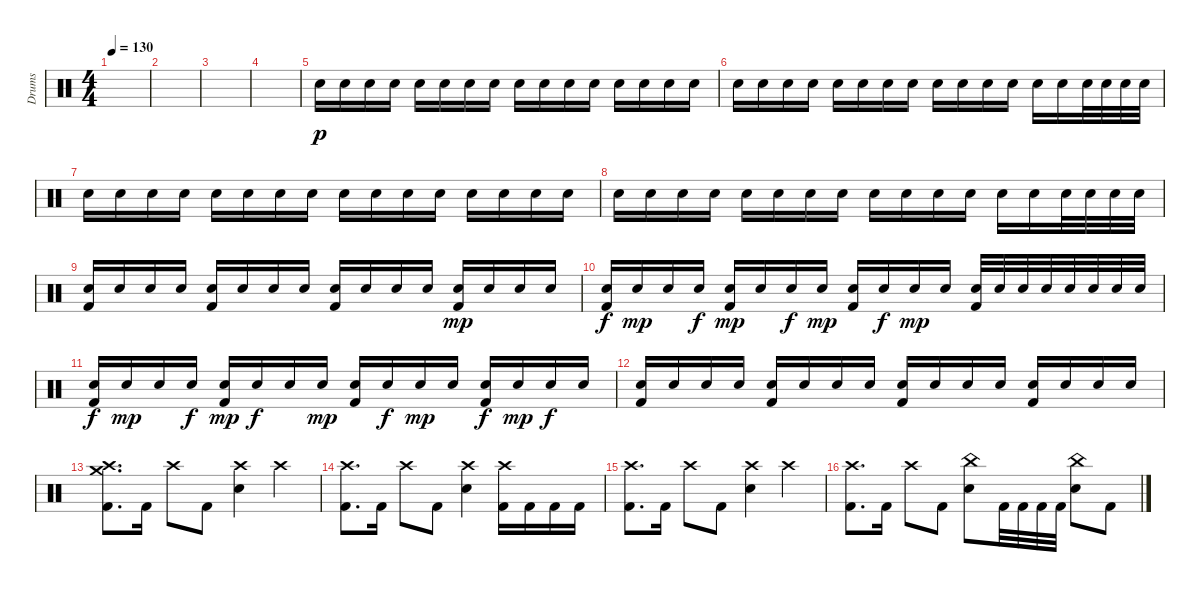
\track ("Drums" "Drums") {instrument percussion}
\staff {score}
\articulation defaults
\ts (4 4)
\tempo 130
\clef neutral
\ks c
|
|
|
|
"Electric Snare (hit)".16{dy p} "Electric Snare (hit)".16 "Electric Snare (hit)".16 "Electric Snare (hit)".16 "Electric Snare (hit)".16 "Electric Snare (hit)".16 "Electric Snare (hit)".16 "Electric Snare (hit)".16 "Electric Snare (hit)".16 "Electric Snare (hit)".16 "Electric Snare (hit)".16 "Electric Snare (hit)".16 "Electric Snare (hit)".16 "Electric Snare (hit)".16 "Electric Snare (hit)".16 "Electric Snare (hit)".16 |
"Electric Snare (hit)".16 "Electric Snare (hit)".16 "Electric Snare (hit)".16 "Electric Snare (hit)".16 "Electric Snare (hit)".16 "Electric Snare (hit)".16 "Electric Snare (hit)".16 "Electric Snare (hit)".16 "Electric Snare (hit)".16 "Electric Snare (hit)".16 "Electric Snare (hit)".16 "Electric Snare (hit)".16 "Electric Snare (hit)".16 "Electric Snare (hit)".16 "Electric Snare (hit)".32 "Electric Snare (hit)".32 "Electric Snare (hit)".32 "Electric Snare (hit)".32 |
"Electric Snare (hit)".16 "Electric Snare (hit)".16 "Electric Snare (hit)".16 "Electric Snare (hit)".16 "Electric Snare (hit)".16 "Electric Snare (hit)".16 "Electric Snare (hit)".16 "Electric Snare (hit)".16 "Electric Snare (hit)".16 "Electric Snare (hit)".16 "Electric Snare (hit)".16 "Electric Snare (hit)".16 "Electric Snare (hit)".16 "Electric Snare (hit)".16 "Electric Snare (hit)".16 "Electric Snare (hit)".16 |
"Electric Snare (hit)".16 "Electric Snare (hit)".16 "Electric Snare (hit)".16 "Electric Snare (hit)".16 "Electric Snare (hit)".16 "Electric Snare (hit)".16 "Electric Snare (hit)".16 "Electric Snare (hit)".16 "Electric Snare (hit)".16 "Electric Snare (hit)".16 "Electric Snare (hit)".16 "Electric Snare (hit)".16 "Electric Snare (hit)".16 "Electric Snare (hit)".16 "Electric Snare (hit)".32 "Electric Snare (hit)".32 "Electric Snare (hit)".32 "Electric Snare (hit)".32 |
("Electric Snare (hit)" "Kick (hit) 2").16 "Electric Snare (hit)".16 "Electric Snare (hit)".16 "Electric Snare (hit)".16 ("Electric Snare (hit)" "Kick (hit) 2").16 "Electric Snare (hit)".16 "Electric Snare (hit)".16 "Electric Snare (hit)".16 ("Electric Snare (hit)" "Kick (hit) 2").16 "Electric Snare (hit)".16 "Electric Snare (hit)".16 "Electric Snare (hit)".16 ("Electric Snare (hit)" "Kick (hit) 2").16{dy mp} "Electric Snare (hit)".16 "Electric Snare (hit)".16 "Electric Snare (hit)".16 |
("Electric Snare (hit)" "Kick (hit) 2").16{dy f} "Electric Snare (hit)".16{dy mp} "Electric Snare (hit)".16 "Electric Snare (hit)".16{dy f} ("Electric Snare (hit)" "Kick (hit) 2").16{dy mp} "Electric Snare (hit)".16 "Electric Snare (hit)".16{dy f} "Electric Snare (hit)".16{dy mp} ("Electric Snare (hit)" "Kick (hit) 2").16 "Electric Snare (hit)".16{dy f} "Electric Snare (hit)".16{dy mp} "Electric Snare (hit)".16 ("Electric Snare (hit)" "Kick (hit) 2").32 "Electric Snare (hit)".32 "Electric Snare (hit)".32 "Electric Snare (hit)".32 "Electric Snare (hit)".32 "Electric Snare (hit)".32 "Electric Snare (hit)".32 "Electric Snare (hit)".32 |
("Electric Snare (hit)" "Kick (hit) 2").16{dy f} "Electric Snare (hit)".16{dy mp} "Electric Snare (hit)".16 "Electric Snare (hit)".16{dy f} ("Electric Snare (hit)" "Kick (hit) 2").16{dy mp} "Electric Snare (hit)".16{dy f} "Electric Snare (hit)".16 "Electric Snare (hit)".16{dy mp} ("Electric Snare (hit)" "Kick (hit) 2").16 "Electric Snare (hit)".16{dy f} "Electric Snare (hit)".16{dy mp} "Electric Snare (hit)".16 ("Electric Snare (hit)" "Kick (hit) 2").16{dy f} "Electric Snare (hit)".16{dy mp} "Electric Snare (hit)".16{dy f} "Electric Snare (hit)".16 |
("Electric Snare (hit)" "Kick (hit) 2").16 "Electric Snare (hit)".16 "Electric Snare (hit)".16 "Electric Snare (hit)".16 ("Electric Snare (hit)" "Kick (hit) 2").16 "Electric Snare (hit)".16 "Electric Snare (hit)".16 "Electric Snare (hit)".16 ("Electric Snare (hit)" "Kick (hit) 2").16 "Electric Snare (hit)".16 "Electric Snare (hit)".16 "Electric Snare (hit)".16 ("Electric Snare (hit)" "Kick (hit) 2").16 "Electric Snare (hit)".16 "Electric Snare (hit)".16 "Electric Snare (hit)".16 |
("Crash high (hit)" "Crash medium (hit)" "Kick (hit) 2").8{d} "Kick (hit) 2".16 "Crash high (hit)".8 "Kick (hit) 2".8 ("Crash high (hit)" "Electric Snare (hit)").4 "Crash high (hit)".4 |
("Crash high (hit)" "Kick (hit) 2").8{d} "Kick (hit) 2".16 "Crash high (hit)".8 "Kick (hit) 2".8 ("Crash high (hit)" "Electric Snare (hit)").4 ("Crash high (hit)" "Kick (hit) 2").16 "Kick (hit) 2".16 "Kick (hit) 2".16 "Kick (hit) 2".16 |
("Crash high (hit)" "Kick (hit) 2").8{d} "Kick (hit) 2".16 "Crash high (hit)".8 "Kick (hit) 2".8 ("Crash high (hit)" "Electric Snare (hit)").4 "Crash high (hit)".4 |
("Crash high (hit)" "Kick (hit) 2").8{d} "Kick (hit) 2".16 "Crash high (hit)".8 "Kick (hit) 2".8 ("China (hit)" "Electric Snare (hit)").8 "Kick (hit) 2".32 "Kick (hit) 2".32 "Kick (hit) 2".32 "Kick (hit) 2".32 ("China (hit)" "Electric Snare (hit)").8 "Kick (hit) 2".8
